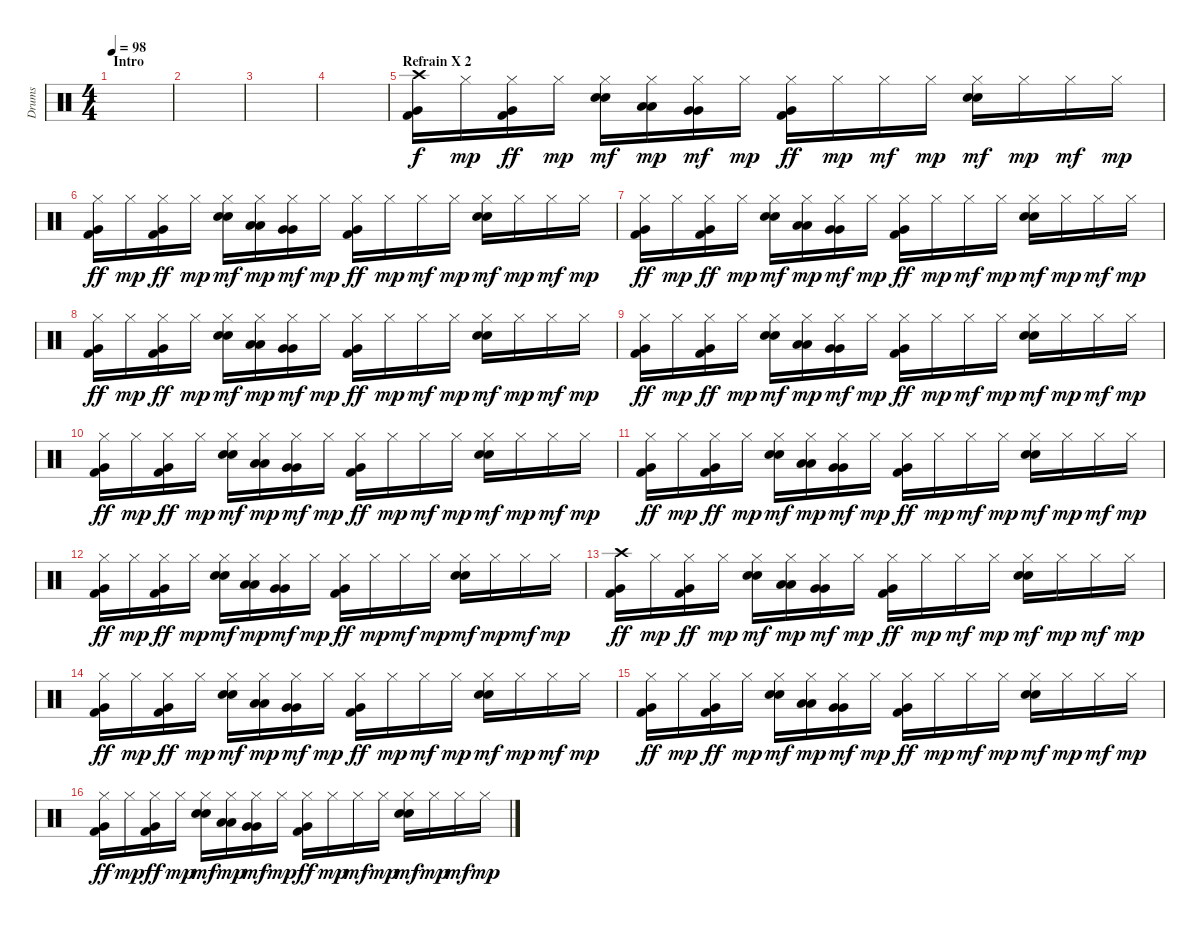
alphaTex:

\track ("Drums" "Drums") {instrument percussion}
\staff {score}
\articulation defaults
\ts (4 4)
\section ("" "Intro")
\tempo 98
\clef neutral
\ks c
|
|
|
|
\section ("" "Refrain X 2")
("Crash high (hit)" "Very Low Tom (hit)" "Kick (hit) 2").16 "Hi-Hat (closed)".16{dy mp} ("Hi-Hat (closed)" "Very Low Tom (hit)" "Kick (hit) 2").16{dy ff} "Hi-Hat (closed)".16{dy mp} ("Hi-Hat (closed)" "Electric Snare (hit)" "Snare (hit) 2").16{dy mf} ("Hi-Hat (closed)" "Low Tom (hit)" "Low Tom (hit)").16{dy mp} ("Hi-Hat (closed)" "Very Low Tom (hit)" "Very Low Tom (hit)").16{dy mf} "Hi-Hat (closed)".16{dy mp} ("Hi-Hat (closed)" "Very Low Tom (hit)" "Kick (hit) 2").16{dy ff} "Hi-Hat (closed)".16{dy mp} "Hi-Hat (closed)".16{dy mf} "Hi-Hat (closed)".16{dy mp} ("Hi-Hat (closed)" "Electric Snare (hit)" "Snare (hit) 2").16{dy mf} "Hi-Hat (closed)".16{dy mp} "Hi-Hat (closed)".16{dy mf} "Hi-Hat (closed)".16{dy mp} |
("Hi-Hat (closed)" "Very Low Tom (hit)" "Kick (hit) 2").16{dy ff} "Hi-Hat (closed)".16{dy mp} ("Hi-Hat (closed)" "Very Low Tom (hit)" "Kick (hit) 2").16{dy ff} "Hi-Hat (closed)".16{dy mp} ("Hi-Hat (closed)" "Electric Snare (hit)" "Snare (hit) 2").16{dy mf} ("Hi-Hat (closed)" "Low Tom (hit)" "Low Tom (hit)").16{dy mp} ("Hi-Hat (closed)" "Very Low Tom (hit)" "Very Low Tom (hit)").16{dy mf} "Hi-Hat (closed)".16{dy mp} ("Hi-Hat (closed)" "Very Low Tom (hit)" "Kick (hit) 2").16{dy ff} "Hi-Hat (closed)".16{dy mp} "Hi-Hat (closed)".16{dy mf} "Hi-Hat (closed)".16{dy mp} ("Hi-Hat (closed)" "Electric Snare (hit)" "Snare (hit) 2").16{dy mf} "Hi-Hat (closed)".16{dy mp} "Hi-Hat (closed)".16{dy mf} "Hi-Hat (closed)".16{dy mp} |
("Hi-Hat (closed)" "Very Low Tom (hit)" "Kick (hit) 2").16{dy ff} "Hi-Hat (closed)".16{dy mp} ("Hi-Hat (closed)" "Very Low Tom (hit)" "Kick (hit) 2").16{dy ff} "Hi-Hat (closed)".16{dy mp} ("Hi-Hat (closed)" "Electric Snare (hit)" "Snare (hit) 2").16{dy mf} ("Hi-Hat (closed)" "Low Tom (hit)" "Low Tom (hit)").16{dy mp} ("Hi-Hat (closed)" "Very Low Tom (hit)" "Very Low Tom (hit)").16{dy mf} "Hi-Hat (closed)".16{dy mp} ("Hi-Hat (closed)" "Very Low Tom (hit)" "Kick (hit) 2").16{dy ff} "Hi-Hat (closed)".16{dy mp} "Hi-Hat (closed)".16{dy mf} "Hi-Hat (closed)".16{dy mp} ("Hi-Hat (closed)" "Electric Snare (hit)" "Snare (hit) 2").16{dy mf} "Hi-Hat (closed)".16{dy mp} "Hi-Hat (closed)".16{dy mf} "Hi-Hat (closed)".16{dy mp} |
("Hi-Hat (closed)" "Very Low Tom (hit)" "Kick (hit) 2").16{dy ff} "Hi-Hat (closed)".16{dy mp} ("Hi-Hat (closed)" "Very Low Tom (hit)" "Kick (hit) 2").16{dy ff} "Hi-Hat (closed)".16{dy mp} ("Hi-Hat (closed)" "Electric Snare (hit)" "Snare (hit) 2").16{dy mf} ("Hi-Hat (closed)" "Low Tom (hit)" "Low Tom (hit)").16{dy mp} ("Hi-Hat (closed)" "Very Low Tom (hit)" "Very Low Tom (hit)").16{dy mf} "Hi-Hat (closed)".16{dy mp} ("Hi-Hat (closed)" "Very Low Tom (hit)" "Kick (hit) 2").16{dy ff} "Hi-Hat (closed)".16{dy mp} "Hi-Hat (closed)".16{dy mf} "Hi-Hat (closed)".16{dy mp} ("Hi-Hat (closed)" "Electric Snare (hit)" "Snare (hit) 2").16{dy mf} "Hi-Hat (closed)".16{dy mp} "Hi-Hat (closed)".16{dy mf} "Hi-Hat (closed)".16{dy mp} |
("Hi-Hat (closed)" "Very Low Tom (hit)" "Kick (hit) 2").16{dy ff} "Hi-Hat (closed)".16{dy mp} ("Hi-Hat (closed)" "Very Low Tom (hit)" "Kick (hit) 2").16{dy ff} "Hi-Hat (closed)".16{dy mp} ("Hi-Hat (closed)" "Electric Snare (hit)" "Snare (hit) 2").16{dy mf} ("Hi-Hat (closed)" "Low Tom (hit)" "Low Tom (hit)").16{dy mp} ("Hi-Hat (closed)" "Very Low Tom (hit)" "Very Low Tom (hit)").16{dy mf} "Hi-Hat (closed)".16{dy mp} ("Hi-Hat (closed)" "Very Low Tom (hit)" "Kick (hit) 2").16{dy ff} "Hi-Hat (closed)".16{dy mp} "Hi-Hat (closed)".16{dy mf} "Hi-Hat (closed)".16{dy mp} ("Hi-Hat (closed)" "Electric Snare (hit)" "Snare (hit) 2").16{dy mf} "Hi-Hat (closed)".16{dy mp} "Hi-Hat (closed)".16{dy mf} "Hi-Hat (closed)".16{dy mp} |
("Hi-Hat (closed)" "Very Low Tom (hit)" "Kick (hit) 2").16{dy ff} "Hi-Hat (closed)".16{dy mp} ("Hi-Hat (closed)" "Very Low Tom (hit)" "Kick (hit) 2").16{dy ff} "Hi-Hat (closed)".16{dy mp} ("Hi-Hat (closed)" "Electric Snare (hit)" "Snare (hit) 2").16{dy mf} ("Hi-Hat (closed)" "Low Tom (hit)" "Low Tom (hit)").16{dy mp} ("Hi-Hat (closed)" "Very Low Tom (hit)" "Very Low Tom (hit)").16{dy mf} "Hi-Hat (closed)".16{dy mp} ("Hi-Hat (closed)" "Very Low Tom (hit)" "Kick (hit) 2").16{dy ff} "Hi-Hat (closed)".16{dy mp} "Hi-Hat (closed)".16{dy mf} "Hi-Hat (closed)".16{dy mp} ("Hi-Hat (closed)" "Electric Snare (hit)" "Snare (hit) 2").16{dy mf} "Hi-Hat (closed)".16{dy mp} "Hi-Hat (closed)".16{dy mf} "Hi-Hat (closed)".16{dy mp} |
("Hi-Hat (closed)" "Very Low Tom (hit)" "Kick (hit) 2").16{dy ff} "Hi-Hat (closed)".16{dy mp} ("Hi-Hat (closed)" "Very Low Tom (hit)" "Kick (hit) 2").16{dy ff} "Hi-Hat (closed)".16{dy mp} ("Hi-Hat (closed)" "Electric Snare (hit)" "Snare (hit) 2").16{dy mf} ("Hi-Hat (closed)" "Low Tom (hit)" "Low Tom (hit)").16{dy mp} ("Hi-Hat (closed)" "Very Low Tom (hit)" "Very Low Tom (hit)").16{dy mf} "Hi-Hat (closed)".16{dy mp} ("Hi-Hat (closed)" "Very Low Tom (hit)" "Kick (hit) 2").16{dy ff} "Hi-Hat (closed)".16{dy mp} "Hi-Hat (closed)".16{dy mf} "Hi-Hat (closed)".16{dy mp} ("Hi-Hat (closed)" "Electric Snare (hit)" "Snare (hit) 2").16{dy mf} "Hi-Hat (closed)".16{dy mp} "Hi-Hat (closed)".16{dy mf} "Hi-Hat (closed)".16{dy mp} |
("Hi-Hat (closed)" "Very Low Tom (hit)" "Kick (hit) 2").16{dy ff} "Hi-Hat (closed)".16{dy mp} ("Hi-Hat (closed)" "Very Low Tom (hit)" "Kick (hit) 2").16{dy ff} "Hi-Hat (closed)".16{dy mp} ("Hi-Hat (closed)" "Electric Snare (hit)" "Snare (hit) 2").16{dy mf} ("Hi-Hat (closed)" "Low Tom (hit)" "Low Tom (hit)").16{dy mp} ("Hi-Hat (closed)" "Very Low Tom (hit)" "Very Low Tom (hit)").16{dy mf} "Hi-Hat (closed)".16{dy mp} ("Hi-Hat (closed)" "Very Low Tom (hit)" "Kick (hit) 2").16{dy ff} "Hi-Hat (closed)".16{dy mp} "Hi-Hat (closed)".16{dy mf} "Hi-Hat (closed)".16{dy mp} ("Hi-Hat (closed)" "Electric Snare (hit)" "Snare (hit) 2").16{dy mf} "Hi-Hat (closed)".16{dy mp} "Hi-Hat (closed)".16{dy mf} "Hi-Hat (closed)".16{dy mp} |
("Crash high (hit)" "Very Low Tom (hit)" "Kick (hit) 2").16{dy ff} "Hi-Hat (closed)".16{dy mp} ("Hi-Hat (closed)" "Very Low Tom (hit)" "Kick (hit) 2").16{dy ff} "Hi-Hat (closed)".16{dy mp} ("Hi-Hat (closed)" "Electric Snare (hit)" "Snare (hit) 2").16{dy mf} ("Hi-Hat (closed)" "Low Tom (hit)" "Low Tom (hit)").16{dy mp} ("Hi-Hat (closed)" "Very Low Tom (hit)" "Very Low Tom (hit)").16{dy mf} "Hi-Hat (closed)".16{dy mp} ("Hi-Hat (closed)" "Very Low Tom (hit)" "Kick (hit) 2").16{dy ff} "Hi-Hat (closed)".16{dy mp} "Hi-Hat (closed)".16{dy mf} "Hi-Hat (closed)".16{dy mp} ("Hi-Hat (closed)" "Electric Snare (hit)" "Snare (hit) 2").16{dy mf} "Hi-Hat (closed)".16{dy mp} "Hi-Hat (closed)".16{dy mf} "Hi-Hat (closed)".16{dy mp} |
("Hi-Hat (closed)" "Very Low Tom (hit)" "Kick (hit) 2").16{dy ff} "Hi-Hat (closed)".16{dy mp} ("Hi-Hat (closed)" "Very Low Tom (hit)" "Kick (hit) 2").16{dy ff} "Hi-Hat (closed)".16{dy mp} ("Hi-Hat (closed)" "Electric Snare (hit)" "Snare (hit) 2").16{dy mf} ("Hi-Hat (closed)" "Low Tom (hit)" "Low Tom (hit)").16{dy mp} ("Hi-Hat (closed)" "Very Low Tom (hit)" "Very Low Tom (hit)").16{dy mf} "Hi-Hat (closed)".16{dy mp} ("Hi-Hat (closed)" "Very Low Tom (hit)" "Kick (hit) 2").16{dy ff} "Hi-Hat (closed)".16{dy mp} "Hi-Hat (closed)".16{dy mf} "Hi-Hat (closed)".16{dy mp} ("Hi-Hat (closed)" "Electric Snare (hit)" "Snare (hit) 2").16{dy mf} "Hi-Hat (closed)".16{dy mp} "Hi-Hat (closed)".16{dy mf} "Hi-Hat (closed)".16{dy mp} |
("Hi-Hat (closed)" "Very Low Tom (hit)" "Kick (hit) 2").16{dy ff} "Hi-Hat (closed)".16{dy mp} ("Hi-Hat (closed)" "Very Low Tom (hit)" "Kick (hit) 2").16{dy ff} "Hi-Hat (closed)".16{dy mp} ("Hi-Hat (closed)" "Electric Snare (hit)" "Snare (hit) 2").16{dy mf} ("Hi-Hat (closed)" "Low Tom (hit)" "Low Tom (hit)").16{dy mp} ("Hi-Hat (closed)" "Very Low Tom (hit)" "Very Low Tom (hit)").16{dy mf} "Hi-Hat (closed)".16{dy mp} ("Hi-Hat (closed)" "Very Low Tom (hit)" "Kick (hit) 2").16{dy ff} "Hi-Hat (closed)".16{dy mp} "Hi-Hat (closed)".16{dy mf} "Hi-Hat (closed)".16{dy mp} ("Hi-Hat (closed)" "Electric Snare (hit)" "Snare (hit) 2").16{dy mf} "Hi-Hat (closed)".16{dy mp} "Hi-Hat (closed)".16{dy mf} "Hi-Hat (closed)".16{dy mp} |
("Hi-Hat (closed)" "Very Low Tom (hit)" "Kick (hit) 2").16{dy ff} "Hi-Hat (closed)".16{dy mp} ("Hi-Hat (closed)" "Very Low Tom (hit)" "Kick (hit) 2").16{dy ff} "Hi-Hat (closed)".16{dy mp} ("Hi-Hat (closed)" "Electric Snare (hit)" "Snare (hit) 2").16{dy mf} ("Hi-Hat (closed)" "Low Tom (hit)" "Low Tom (hit)").16{dy mp} ("Hi-Hat (closed)" "Very Low Tom (hit)" "Very Low Tom (hit)").16{dy mf} "Hi-Hat (closed)".16{dy mp} ("Hi-Hat (closed)" "Very Low Tom (hit)" "Kick (hit) 2").16{dy ff} "Hi-Hat (closed)".16{dy mp} "Hi-Hat (closed)".16{dy mf} "Hi-Hat (closed)".16{dy mp} ("Hi-Hat (closed)" "Electric Snare (hit)" "Snare (hit) 2").16{dy mf} "Hi-Hat (closed)".16{dy mp} "Hi-Hat (closed)".16{dy mf} "Hi-Hat (closed)".16{dy mp}
